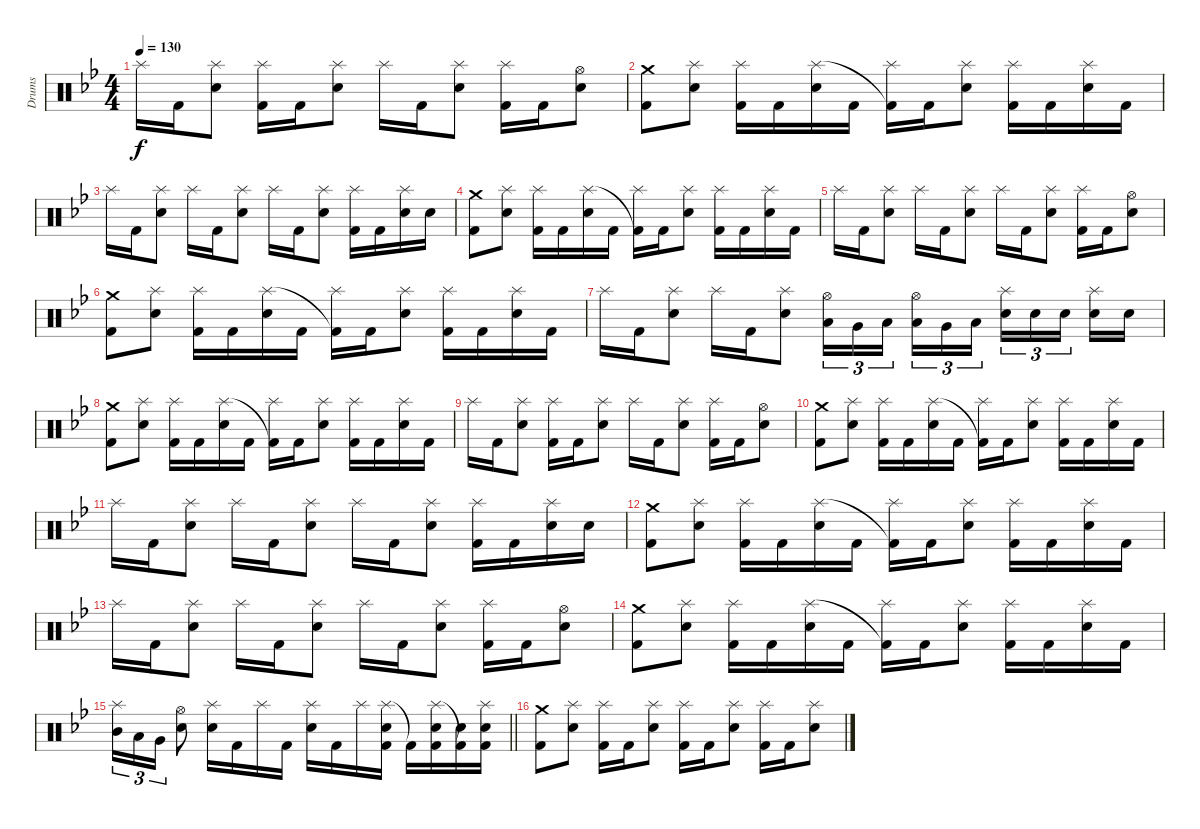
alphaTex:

\track ("Drums" "Drums") {instrument percussion}
\staff {score}
\articulation defaults
\ts (4 4)
\tempo 130
\clef neutral
\ks bb "Splash (hit)".16{dy f} "Kick (hit) 2".16
("Electric Snare (hit)" "Splash (hit)").8 ("Splash (hit)" "Kick (hit) 2").16 "Kick (hit) 2".16 ("Electric Snare (hit)" "Splash (hit)").8 "Splash (hit)".16 "Kick (hit) 2".16 ("Electric Snare (hit)" "Splash (hit)").8 ("Splash (hit)" "Kick (hit) 2").16 "Kick (hit) 2".16 ("Electric Snare (hit)" "Hi-Hat (open)").8 |
("Crash medium (hit)" "Kick (hit) 2").8 ("Splash (hit)" "Electric Snare (hit)").8 ("Splash (hit)" "Kick (hit) 2").16 "Kick (hit) 2".16 ("Electric Snare (hit)" "Splash (hit)").16 "Kick (hit) 2".16 ("Splash (hit)" "Kick (hit) 2"{t}).16 "Kick (hit) 2".16 ("Electric Snare (hit)" "Splash (hit)").8 ("Splash (hit)" "Kick (hit) 2").16 "Kick (hit) 2".16 ("Electric Snare (hit)" "Splash (hit)").16 "Kick (hit) 2".16 |
"Splash (hit)".16 "Kick (hit) 2".16 ("Electric Snare (hit)" "Splash (hit)").8 "Splash (hit)".16 "Kick (hit) 2".16 ("Electric Snare (hit)" "Splash (hit)").8 "Splash (hit)".16 "Kick (hit) 2".16 ("Electric Snare (hit)" "Splash (hit)").8 ("Splash (hit)" "Kick (hit) 2").16 "Kick (hit) 2".16 ("Splash (hit)" "Electric Snare (hit)").16 "Electric Snare (hit)".16 |
("Crash medium (hit)" "Kick (hit) 2").8 ("Splash (hit)" "Electric Snare (hit)").8 ("Splash (hit)" "Kick (hit) 2").16 "Kick (hit) 2".16 ("Electric Snare (hit)" "Splash (hit)").16 "Kick (hit) 2".16 ("Splash (hit)" "Kick (hit) 2"{t}).16 "Kick (hit) 2".16 ("Electric Snare (hit)" "Splash (hit)").8 ("Splash (hit)" "Kick (hit) 2").16 "Kick (hit) 2".16 ("Electric Snare (hit)" "Splash (hit)").16 "Kick (hit) 2".16 |
"Splash (hit)".16 "Kick (hit) 2".16 ("Electric Snare (hit)" "Splash (hit)").8 "Splash (hit)".16 "Kick (hit) 2".16 ("Electric Snare (hit)" "Splash (hit)").8 "Splash (hit)".16 "Kick (hit) 2".16 ("Electric Snare (hit)" "Splash (hit)").8 ("Splash (hit)" "Kick (hit) 2").16 "Kick (hit) 2".16 ("Electric Snare (hit)" "Hi-Hat (open)").8 |
("Crash medium (hit)" "Kick (hit) 2").8 ("Splash (hit)" "Electric Snare (hit)").8 ("Splash (hit)" "Kick (hit) 2").16 "Kick (hit) 2".16 ("Electric Snare (hit)" "Splash (hit)").16 "Kick (hit) 2".16 ("Splash (hit)" "Kick (hit) 2"{t}).16 "Kick (hit) 2".16 ("Electric Snare (hit)" "Splash (hit)").8 ("Splash (hit)" "Kick (hit) 2").16 "Kick (hit) 2".16 ("Electric Snare (hit)" "Splash (hit)").16 "Kick (hit) 2".16 |
"Splash (hit)".16 "Kick (hit) 2".16 ("Electric Snare (hit)" "Splash (hit)").8 "Splash (hit)".16 "Kick (hit) 2".16 ("Electric Snare (hit)" "Splash (hit)").8 ("Low Tom (hit)" "Hi-Hat (open)").16{tu (3 2)} "Very Low Tom (hit)".16{tu (3 2)} "Low Floor Tom (hit)".16{tu (3 2) beam splitsecondary} ("Low Tom (hit)" "Hi-Hat (open)").16{tu (3 2)} "Very Low Tom (hit)".16{tu (3 2)} "Low Floor Tom (hit)".16{tu (3 2)} ("Electric Snare (hit)" "Splash (hit)").16{tu (3 2)} "Electric Snare (hit)".16{tu (3 2) volume 11} "Electric Snare (hit)".16{tu (3 2) beam splitsecondary} ("Electric Snare (hit)" "Splash (hit)").16{volume 10} "Electric Snare (hit)".16{volume 9} |
("Crash medium (hit)" "Kick (hit) 2").8{volume 12} ("Splash (hit)" "Electric Snare (hit)").8 ("Splash (hit)" "Kick (hit) 2").16 "Kick (hit) 2".16 ("Electric Snare (hit)" "Splash (hit)").16 "Kick (hit) 2".16 ("Splash (hit)" "Kick (hit) 2"{t}).16 "Kick (hit) 2".16 ("Electric Snare (hit)" "Splash (hit)").8 ("Splash (hit)" "Kick (hit) 2").16 "Kick (hit) 2".16 ("Electric Snare (hit)" "Splash (hit)").16 "Kick (hit) 2".16 |
"Splash (hit)".16 "Kick (hit) 2".16 ("Electric Snare (hit)" "Splash (hit)").8 ("Splash (hit)" "Kick (hit) 2").16 "Kick (hit) 2".16 ("Electric Snare (hit)" "Splash (hit)").8 "Splash (hit)".16 "Kick (hit) 2".16 ("Electric Snare (hit)" "Splash (hit)").8 ("Splash (hit)" "Kick (hit) 2").16 "Kick (hit) 2".16 ("Electric Snare (hit)" "Hi-Hat (open)").8 |
("Crash medium (hit)" "Kick (hit) 2").8 ("Splash (hit)" "Electric Snare (hit)").8 ("Splash (hit)" "Kick (hit) 2").16 "Kick (hit) 2".16 ("Electric Snare (hit)" "Splash (hit)").16 "Kick (hit) 2".16 ("Splash (hit)" "Kick (hit) 2"{t}).16 "Kick (hit) 2".16 ("Electric Snare (hit)" "Splash (hit)").8 ("Splash (hit)" "Kick (hit) 2").16 "Kick (hit) 2".16 ("Electric Snare (hit)" "Splash (hit)").16 "Kick (hit) 2".16 |
"Splash (hit)".16 "Kick (hit) 2".16 ("Electric Snare (hit)" "Splash (hit)").8 "Splash (hit)".16 "Kick (hit) 2".16 ("Electric Snare (hit)" "Splash (hit)").8 "Splash (hit)".16 "Kick (hit) 2".16 ("Electric Snare (hit)" "Splash (hit)").8 ("Splash (hit)" "Kick (hit) 2").16 "Kick (hit) 2".16 ("Splash (hit)" "Electric Snare (hit)").16 "Electric Snare (hit)".16 |
("Crash medium (hit)" "Kick (hit) 2").8 ("Splash (hit)" "Electric Snare (hit)").8 ("Splash (hit)" "Kick (hit) 2").16 "Kick (hit) 2".16 ("Electric Snare (hit)" "Splash (hit)").16 "Kick (hit) 2".16 ("Splash (hit)" "Kick (hit) 2"{t}).16 "Kick (hit) 2".16 ("Electric Snare (hit)" "Splash (hit)").8 ("Splash (hit)" "Kick (hit) 2").16 "Kick (hit) 2".16 ("Electric Snare (hit)" "Splash (hit)").16 "Kick (hit) 2".16 |
"Splash (hit)".16 "Kick (hit) 2".16 ("Electric Snare (hit)" "Splash (hit)").8 "Splash (hit)".16 "Kick (hit) 2".16 ("Electric Snare (hit)" "Splash (hit)").8 "Splash (hit)".16 "Kick (hit) 2".16 ("Electric Snare (hit)" "Splash (hit)").8 ("Splash (hit)" "Kick (hit) 2").16 "Kick (hit) 2".16 ("Electric Snare (hit)" "Hi-Hat (open)").8 |
("Crash medium (hit)" "Kick (hit) 2").8 ("Splash (hit)" "Electric Snare (hit)").8 ("Splash (hit)" "Kick (hit) 2").16 "Kick (hit) 2".16 ("Electric Snare (hit)" "Splash (hit)").16 "Kick (hit) 2".16 ("Splash (hit)" "Kick (hit) 2"{t}).16 "Kick (hit) 2".16 ("Electric Snare (hit)" "Splash (hit)").8 ("Splash (hit)" "Kick (hit) 2").16 "Kick (hit) 2".16 ("Electric Snare (hit)" "Splash (hit)").16 "Kick (hit) 2".16 |
\barLineRight lightlight
("Splash (hit)" "Mid Tom (hit)").16{tu (3 2)} "Low Tom (hit)".16{tu (3 2)} "Very Low Tom (hit)".16{tu (3 2)} ("Hi-Hat (open)" "Electric Snare (hit)").8 ("Splash (hit)" "Electric Snare (hit)").16 "Kick (hit) 2".16 "Splash (hit)".16 "Kick (hit) 2".16 ("Splash (hit)" "Electric Snare (hit)").16 "Kick (hit) 2".16 "Splash (hit)".16 ("Splash (hit)" "Kick (hit) 2" "Electric Snare (hit)").16 "Kick (hit) 2"{t}.16 ("Splash (hit)" "Kick (hit) 2" "Electric Snare (hit)").16 ("Kick (hit) 2"{t} "Electric Snare (hit)").16 ("Splash (hit)" "Kick (hit) 2" "Electric Snare (hit)").16 |
("Crash medium (hit)" "Kick (hit) 2").8 ("Electric Snare (hit)" "Splash (hit)").8 ("Splash (hit)" "Kick (hit) 2").16 "Kick (hit) 2".16 ("Electric Snare (hit)" "Splash (hit)").8 ("Splash (hit)" "Kick (hit) 2").16 "Kick (hit) 2".16 ("Electric Snare (hit)" "Splash (hit)").8 ("Splash (hit)" "Kick (hit) 2").16 "Kick (hit) 2".16 ("Electric Snare (hit)" "Splash (hit)").8
